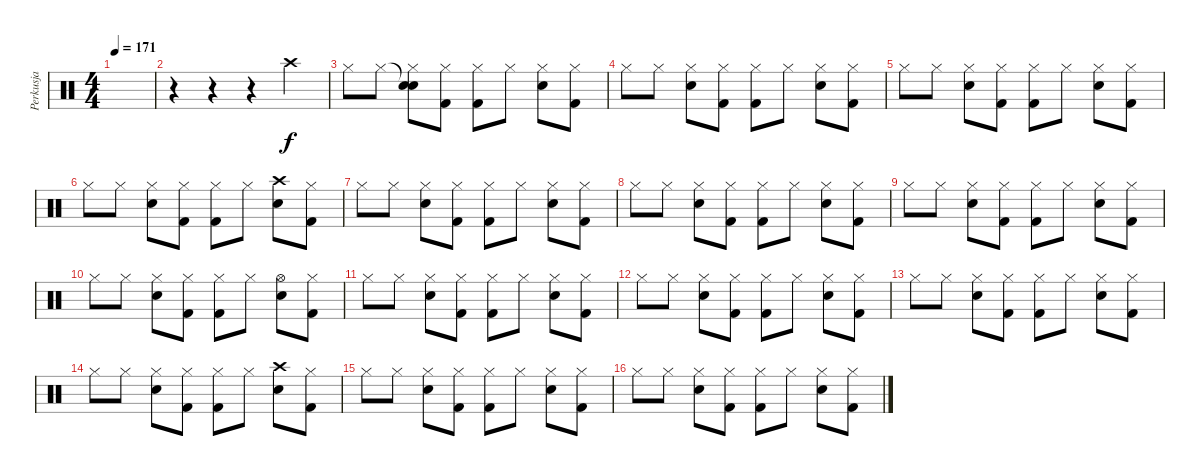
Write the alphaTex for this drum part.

\track ("Perkusja" "Perkusja") {instrument percussion}
\staff {score}
\articulation defaults
\ts (4 4)
\tempo 171
\clef neutral
\ks c
|
r.4 r.4 r.4 "Crash high (hit)".4 |
"Hi-Hat (closed)".8{dy f} "Hi-Hat (closed)".8 ("Snare (hit)"{t} "Hi-Hat (closed)" "Snare (hit) 2").8 ("Hi-Hat (closed)" "Kick (hit) 2").8 ("Hi-Hat (closed)" "Kick (hit) 2").8 "Hi-Hat (closed)".8 ("Hi-Hat (closed)" "Snare (hit) 2").8 ("Hi-Hat (closed)" "Kick (hit) 2").8 |
"Hi-Hat (closed)".8 "Hi-Hat (closed)".8 ("Hi-Hat (closed)" "Snare (hit) 2").8 ("Hi-Hat (closed)" "Kick (hit) 2").8 ("Hi-Hat (closed)" "Kick (hit) 2").8 "Hi-Hat (closed)".8 ("Hi-Hat (closed)" "Snare (hit) 2").8 ("Hi-Hat (closed)" "Kick (hit) 2").8 |
"Hi-Hat (closed)".8 "Hi-Hat (closed)".8 ("Hi-Hat (closed)" "Snare (hit) 2").8 ("Hi-Hat (closed)" "Kick (hit) 2").8 ("Hi-Hat (closed)" "Kick (hit) 2").8 "Hi-Hat (closed)".8 ("Hi-Hat (closed)" "Snare (hit) 2").8 ("Hi-Hat (closed)" "Kick (hit) 2").8 |
"Hi-Hat (closed)".8 "Hi-Hat (closed)".8 ("Hi-Hat (closed)" "Snare (hit) 2").8 ("Hi-Hat (closed)" "Kick (hit) 2").8 ("Hi-Hat (closed)" "Kick (hit) 2").8 "Hi-Hat (closed)".8 ("Crash high (hit)" "Snare (hit) 2").8 ("Hi-Hat (closed)" "Kick (hit) 2").8 |
"Hi-Hat (closed)".8 "Hi-Hat (closed)".8 ("Hi-Hat (closed)" "Snare (hit) 2").8 ("Hi-Hat (closed)" "Kick (hit) 2").8 ("Hi-Hat (closed)" "Kick (hit) 2").8 "Hi-Hat (closed)".8 ("Hi-Hat (closed)" "Snare (hit) 2").8 ("Hi-Hat (closed)" "Kick (hit) 2").8 |
"Hi-Hat (closed)".8 "Hi-Hat (closed)".8 ("Hi-Hat (closed)" "Snare (hit) 2").8 ("Hi-Hat (closed)" "Kick (hit) 2").8 ("Hi-Hat (closed)" "Kick (hit) 2").8 "Hi-Hat (closed)".8 ("Hi-Hat (closed)" "Snare (hit) 2").8 ("Hi-Hat (closed)" "Kick (hit) 2").8 |
"Hi-Hat (closed)".8 "Hi-Hat (closed)".8 ("Hi-Hat (closed)" "Snare (hit) 2").8 ("Hi-Hat (closed)" "Kick (hit) 2").8 ("Hi-Hat (closed)" "Kick (hit) 2").8 "Hi-Hat (closed)".8 ("Hi-Hat (closed)" "Snare (hit) 2").8 ("Hi-Hat (closed)" "Kick (hit) 2").8 |
"Hi-Hat (closed)".8 "Hi-Hat (closed)".8 ("Hi-Hat (closed)" "Snare (hit) 2").8 ("Hi-Hat (closed)" "Kick (hit) 2").8 ("Hi-Hat (closed)" "Kick (hit) 2").8 "Hi-Hat (closed)".8 ("Hi-Hat (open)" "Snare (hit) 2").8 ("Hi-Hat (closed)" "Kick (hit) 2").8 |
"Hi-Hat (closed)".8 "Hi-Hat (closed)".8 ("Hi-Hat (closed)" "Snare (hit) 2").8 ("Hi-Hat (closed)" "Kick (hit) 2").8 ("Hi-Hat (closed)" "Kick (hit) 2").8 "Hi-Hat (closed)".8 ("Hi-Hat (closed)" "Snare (hit) 2").8 ("Hi-Hat (closed)" "Kick (hit) 2").8 |
"Hi-Hat (closed)".8 "Hi-Hat (closed)".8 ("Hi-Hat (closed)" "Snare (hit) 2").8 ("Hi-Hat (closed)" "Kick (hit) 2").8 ("Hi-Hat (closed)" "Kick (hit) 2").8 "Hi-Hat (closed)".8 ("Hi-Hat (closed)" "Snare (hit) 2").8 ("Hi-Hat (closed)" "Kick (hit) 2").8 |
"Hi-Hat (closed)".8 "Hi-Hat (closed)".8 ("Hi-Hat (closed)" "Snare (hit) 2").8 ("Hi-Hat (closed)" "Kick (hit) 2").8 ("Hi-Hat (closed)" "Kick (hit) 2").8 "Hi-Hat (closed)".8 ("Hi-Hat (closed)" "Snare (hit) 2").8 ("Hi-Hat (closed)" "Kick (hit) 2").8 |
"Hi-Hat (closed)".8 "Hi-Hat (closed)".8 ("Hi-Hat (closed)" "Snare (hit) 2").8 ("Hi-Hat (closed)" "Kick (hit) 2").8 ("Hi-Hat (closed)" "Kick (hit) 2").8 "Hi-Hat (closed)".8 ("Crash high (hit)" "Snare (hit) 2").8 ("Hi-Hat (closed)" "Kick (hit) 2").8 |
"Hi-Hat (closed)".8 "Hi-Hat (closed)".8 ("Hi-Hat (closed)" "Snare (hit) 2").8 ("Hi-Hat (closed)" "Kick (hit) 2").8 ("Hi-Hat (closed)" "Kick (hit) 2").8 "Hi-Hat (closed)".8 ("Hi-Hat (closed)" "Snare (hit) 2").8 ("Hi-Hat (closed)" "Kick (hit) 2").8 |
"Hi-Hat (closed)".8 "Hi-Hat (closed)".8 ("Hi-Hat (closed)" "Snare (hit) 2").8 ("Hi-Hat (closed)" "Kick (hit) 2").8 ("Hi-Hat (closed)" "Kick (hit) 2").8 "Hi-Hat (closed)".8 ("Hi-Hat (closed)" "Snare (hit) 2").8 ("Hi-Hat (closed)" "Kick (hit) 2").8
